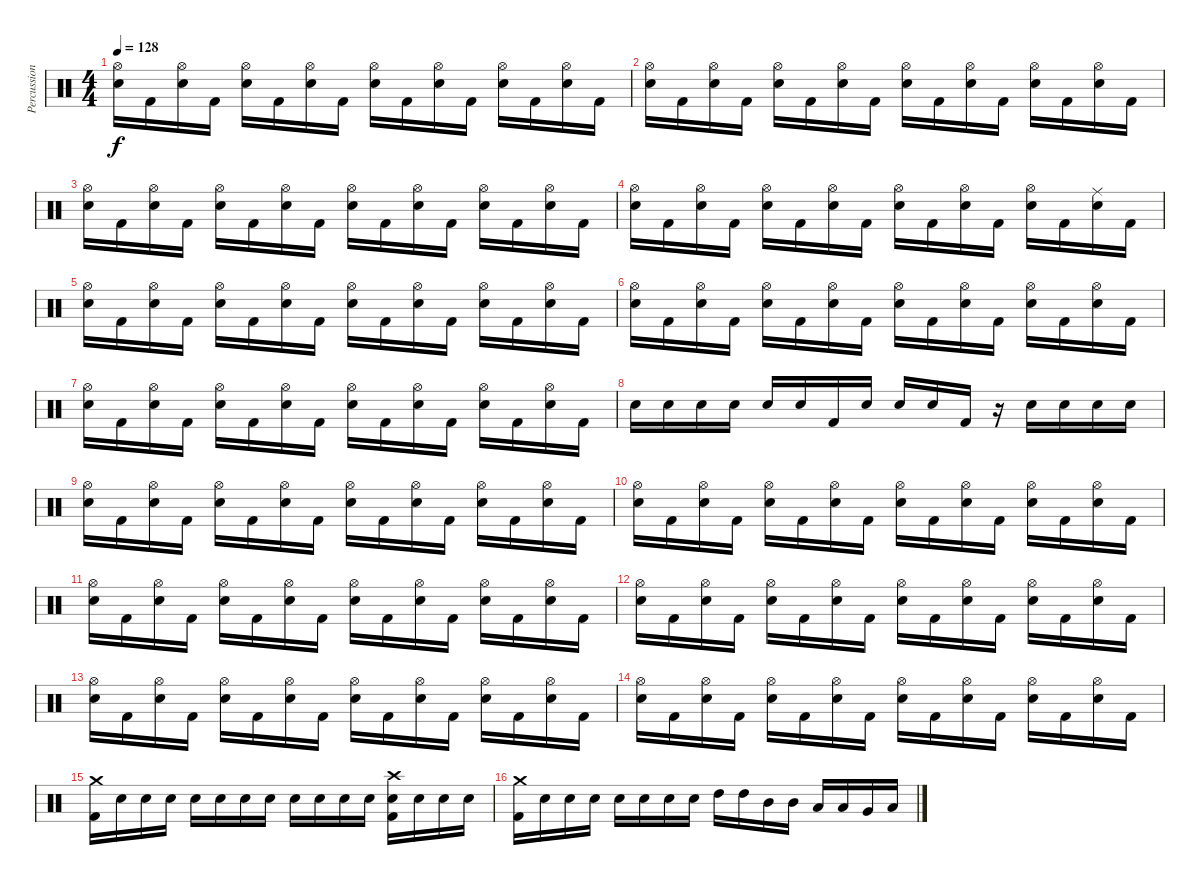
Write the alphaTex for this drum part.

\track ("Percussion" "Percussion") {instrument percussion}
\staff {score}
\articulation defaults
\ts (4 4)
\tempo 128
\clef neutral
\ks c
("Hi-Hat (open)" "Electric Snare (hit)").16{dy f} "Kick (hit) 2".16 ("Hi-Hat (open)" "Electric Snare (hit)").16 "Kick (hit) 2".16 ("Hi-Hat (open)" "Electric Snare (hit)").16 "Kick (hit) 2".16 ("Hi-Hat (open)" "Electric Snare (hit)").16 "Kick (hit) 2".16 ("Hi-Hat (open)" "Electric Snare (hit)").16 "Kick (hit) 2".16 ("Hi-Hat (open)" "Electric Snare (hit)").16 "Kick (hit) 2".16 ("Hi-Hat (open)" "Electric Snare (hit)").16 "Kick (hit) 2".16 ("Hi-Hat (open)" "Electric Snare (hit)").16 "Kick (hit) 2".16 |
("Hi-Hat (open)" "Electric Snare (hit)").16 "Kick (hit) 2".16 ("Hi-Hat (open)" "Electric Snare (hit)").16 "Kick (hit) 2".16 ("Hi-Hat (open)" "Electric Snare (hit)").16 "Kick (hit) 2".16 ("Hi-Hat (open)" "Electric Snare (hit)").16 "Kick (hit) 2".16 ("Hi-Hat (open)" "Electric Snare (hit)").16 "Kick (hit) 2".16 ("Hi-Hat (open)" "Electric Snare (hit)").16 "Kick (hit) 2".16 ("Hi-Hat (open)" "Electric Snare (hit)").16 "Kick (hit) 2".16 ("Hi-Hat (open)" "Electric Snare (hit)").16 "Kick (hit) 2".16 |
("Hi-Hat (open)" "Electric Snare (hit)").16 "Kick (hit) 2".16 ("Hi-Hat (open)" "Electric Snare (hit)").16 "Kick (hit) 2".16 ("Hi-Hat (open)" "Electric Snare (hit)").16 "Kick (hit) 2".16 ("Hi-Hat (open)" "Electric Snare (hit)").16 "Kick (hit) 2".16 ("Hi-Hat (open)" "Electric Snare (hit)").16 "Kick (hit) 2".16 ("Hi-Hat (open)" "Electric Snare (hit)").16 "Kick (hit) 2".16 ("Hi-Hat (open)" "Electric Snare (hit)").16 "Kick (hit) 2".16 ("Hi-Hat (open)" "Electric Snare (hit)").16 "Kick (hit) 2".16 |
("Hi-Hat (open)" "Electric Snare (hit)").16 "Kick (hit) 2".16 ("Hi-Hat (open)" "Electric Snare (hit)").16 "Kick (hit) 2".16 ("Hi-Hat (open)" "Electric Snare (hit)").16 "Kick (hit) 2".16 ("Hi-Hat (open)" "Electric Snare (hit)").16 "Kick (hit) 2".16 ("Hi-Hat (open)" "Electric Snare (hit)").16 "Kick (hit) 2".16 ("Hi-Hat (open)" "Electric Snare (hit)").16 "Kick (hit) 2".16 ("Hi-Hat (open)" "Electric Snare (hit)").16 "Kick (hit) 2".16 ("Ride (middle)" "Electric Snare (hit)").16 "Kick (hit) 2".16 |
("Hi-Hat (open)" "Electric Snare (hit)").16 "Kick (hit) 2".16 ("Hi-Hat (open)" "Electric Snare (hit)").16 "Kick (hit) 2".16 ("Hi-Hat (open)" "Electric Snare (hit)").16 "Kick (hit) 2".16 ("Hi-Hat (open)" "Electric Snare (hit)").16 "Kick (hit) 2".16 ("Hi-Hat (open)" "Electric Snare (hit)").16 "Kick (hit) 2".16 ("Hi-Hat (open)" "Electric Snare (hit)").16 "Kick (hit) 2".16 ("Hi-Hat (open)" "Electric Snare (hit)").16 "Kick (hit) 2".16 ("Hi-Hat (open)" "Electric Snare (hit)").16 "Kick (hit) 2".16 |
("Hi-Hat (open)" "Electric Snare (hit)").16 "Kick (hit) 2".16 ("Hi-Hat (open)" "Electric Snare (hit)").16 "Kick (hit) 2".16 ("Hi-Hat (open)" "Electric Snare (hit)").16 "Kick (hit) 2".16 ("Hi-Hat (open)" "Electric Snare (hit)").16 "Kick (hit) 2".16 ("Hi-Hat (open)" "Electric Snare (hit)").16 "Kick (hit) 2".16 ("Hi-Hat (open)" "Electric Snare (hit)").16 "Kick (hit) 2".16 ("Hi-Hat (open)" "Electric Snare (hit)").16 "Kick (hit) 2".16 ("Hi-Hat (open)" "Electric Snare (hit)").16 "Kick (hit) 2".16 |
("Hi-Hat (open)" "Electric Snare (hit)").16 "Kick (hit) 2".16 ("Hi-Hat (open)" "Electric Snare (hit)").16 "Kick (hit) 2".16 ("Hi-Hat (open)" "Electric Snare (hit)").16 "Kick (hit) 2".16 ("Hi-Hat (open)" "Electric Snare (hit)").16 "Kick (hit) 2".16 ("Hi-Hat (open)" "Electric Snare (hit)").16 "Kick (hit) 2".16 ("Hi-Hat (open)" "Electric Snare (hit)").16 "Kick (hit) 2".16 ("Hi-Hat (open)" "Electric Snare (hit)").16 "Kick (hit) 2".16 ("Hi-Hat (open)" "Electric Snare (hit)").16 "Kick (hit) 2".16 |
"Electric Snare (hit)".16 "Electric Snare (hit)".16 "Electric Snare (hit)".16 "Electric Snare (hit)".16 "Electric Snare (hit)".16 "Electric Snare (hit)".16 "Kick (hit) 2".16 "Electric Snare (hit)".16 "Electric Snare (hit)".16 "Electric Snare (hit)".16 "Kick (hit) 2".16 r.16 "Electric Snare (hit)".16 "Electric Snare (hit)".16 "Electric Snare (hit)".16 "Electric Snare (hit)".16 |
("Hi-Hat (open)" "Electric Snare (hit)").16 "Kick (hit) 2".16 ("Hi-Hat (open)" "Electric Snare (hit)").16 "Kick (hit) 2".16 ("Hi-Hat (open)" "Electric Snare (hit)").16 "Kick (hit) 2".16 ("Hi-Hat (open)" "Electric Snare (hit)").16 "Kick (hit) 2".16 ("Hi-Hat (open)" "Electric Snare (hit)").16 "Kick (hit) 2".16 ("Hi-Hat (open)" "Electric Snare (hit)").16 "Kick (hit) 2".16 ("Hi-Hat (open)" "Electric Snare (hit)").16 "Kick (hit) 2".16 ("Hi-Hat (open)" "Electric Snare (hit)").16 "Kick (hit) 2".16 |
("Hi-Hat (open)" "Electric Snare (hit)").16 "Kick (hit) 2".16 ("Hi-Hat (open)" "Electric Snare (hit)").16 "Kick (hit) 2".16 ("Hi-Hat (open)" "Electric Snare (hit)").16 "Kick (hit) 2".16 ("Hi-Hat (open)" "Electric Snare (hit)").16 "Kick (hit) 2".16 ("Hi-Hat (open)" "Electric Snare (hit)").16 "Kick (hit) 2".16 ("Hi-Hat (open)" "Electric Snare (hit)").16 "Kick (hit) 2".16 ("Hi-Hat (open)" "Electric Snare (hit)").16 "Kick (hit) 2".16 ("Hi-Hat (open)" "Electric Snare (hit)").16 "Kick (hit) 2".16 |
("Hi-Hat (open)" "Electric Snare (hit)").16 "Kick (hit) 2".16 ("Hi-Hat (open)" "Electric Snare (hit)").16 "Kick (hit) 2".16 ("Hi-Hat (open)" "Electric Snare (hit)").16 "Kick (hit) 2".16 ("Hi-Hat (open)" "Electric Snare (hit)").16 "Kick (hit) 2".16 ("Hi-Hat (open)" "Electric Snare (hit)").16 "Kick (hit) 2".16 ("Hi-Hat (open)" "Electric Snare (hit)").16 "Kick (hit) 2".16 ("Hi-Hat (open)" "Electric Snare (hit)").16 "Kick (hit) 2".16 ("Hi-Hat (open)" "Electric Snare (hit)").16 "Kick (hit) 2".16 |
("Hi-Hat (open)" "Electric Snare (hit)").16 "Kick (hit) 2".16 ("Hi-Hat (open)" "Electric Snare (hit)").16 "Kick (hit) 2".16 ("Hi-Hat (open)" "Electric Snare (hit)").16 "Kick (hit) 2".16 ("Hi-Hat (open)" "Electric Snare (hit)").16 "Kick (hit) 2".16 ("Hi-Hat (open)" "Electric Snare (hit)").16 "Kick (hit) 2".16 ("Hi-Hat (open)" "Electric Snare (hit)").16 "Kick (hit) 2".16 ("Hi-Hat (open)" "Electric Snare (hit)").16 "Kick (hit) 2".16 ("Hi-Hat (open)" "Electric Snare (hit)").16 "Kick (hit) 2".16 |
("Hi-Hat (open)" "Electric Snare (hit)").16 "Kick (hit) 2".16 ("Hi-Hat (open)" "Electric Snare (hit)").16 "Kick (hit) 2".16 ("Hi-Hat (open)" "Electric Snare (hit)").16 "Kick (hit) 2".16 ("Hi-Hat (open)" "Electric Snare (hit)").16 "Kick (hit) 2".16 ("Hi-Hat (open)" "Electric Snare (hit)").16 "Kick (hit) 2".16 ("Hi-Hat (open)" "Electric Snare (hit)").16 "Kick (hit) 2".16 ("Hi-Hat (open)" "Electric Snare (hit)").16 "Kick (hit) 2".16 ("Hi-Hat (open)" "Electric Snare (hit)").16 "Kick (hit) 2".16 |
("Hi-Hat (open)" "Electric Snare (hit)").16 "Kick (hit) 2".16 ("Hi-Hat (open)" "Electric Snare (hit)").16 "Kick (hit) 2".16 ("Hi-Hat (open)" "Electric Snare (hit)").16 "Kick (hit) 2".16 ("Hi-Hat (open)" "Electric Snare (hit)").16 "Kick (hit) 2".16 ("Hi-Hat (open)" "Electric Snare (hit)").16 "Kick (hit) 2".16 ("Hi-Hat (open)" "Electric Snare (hit)").16 "Kick (hit) 2".16 ("Hi-Hat (open)" "Electric Snare (hit)").16 "Kick (hit) 2".16 ("Hi-Hat (open)" "Electric Snare (hit)").16 "Kick (hit) 2".16 |
("Crash medium (hit)" "Kick (hit) 2").16 "Electric Snare (hit)".16 "Electric Snare (hit)".16 "Electric Snare (hit)".16 "Electric Snare (hit)".16 "Electric Snare (hit)".16 "Electric Snare (hit)".16 "Electric Snare (hit)".16 "Electric Snare (hit)".16 "Electric Snare (hit)".16 "Electric Snare (hit)".16 "Electric Snare (hit)".16 ("Crash high (hit)" "Electric Snare (hit)" "Kick (hit) 2").16 "Electric Snare (hit)".16 "Electric Snare (hit)".16 "Electric Snare (hit)".16 |
("Crash medium (hit)" "Kick (hit) 2").16 "Electric Snare (hit)".16 "Electric Snare (hit)".16 "Electric Snare (hit)".16 "Electric Snare (hit)".16 "Electric Snare (hit)".16 "Electric Snare (hit)".16 "Electric Snare (hit)".16 "High Tom (hit)".16 "High Tom (hit)".16 "Mid Tom (hit)".16 "Mid Tom (hit)".16 "Low Tom (hit)".16 "Low Tom (hit)".16 "Very Low Tom (hit)".16 "Low Floor Tom (hit)".16
